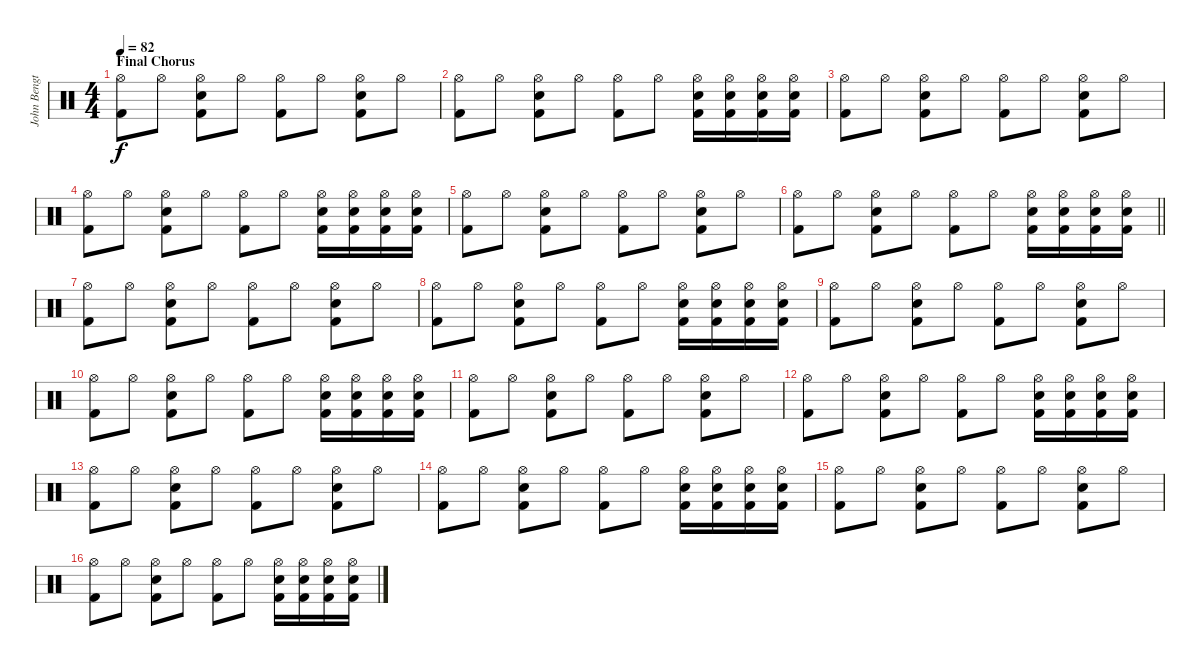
\track ("John Bengtsson" "John Bengt") {instrument percussion}
\staff {score}
\articulation defaults
\ts (4 4)
\section ("" "Final Chorus")
\tempo 82
\clef neutral
\ks c
("Hi-Hat (open)" "Kick (hit) 2").8{dy f} "Hi-Hat (open)".8 ("Hi-Hat (open)" "Electric Snare (hit)" "Kick (hit) 2").8 "Hi-Hat (open)".8 ("Hi-Hat (open)" "Kick (hit) 2").8 "Hi-Hat (open)".8 ("Hi-Hat (open)" "Electric Snare (hit)" "Kick (hit) 2").8 "Hi-Hat (open)".8 |
("Hi-Hat (open)" "Kick (hit) 2").8 "Hi-Hat (open)".8 ("Hi-Hat (open)" "Electric Snare (hit)" "Kick (hit) 2").8 "Hi-Hat (open)".8 ("Hi-Hat (open)" "Kick (hit) 2").8 "Hi-Hat (open)".8 ("Hi-Hat (open)" "Electric Snare (hit)" "Kick (hit) 2").16 ("Hi-Hat (open)" "Electric Snare (hit)" "Kick (hit) 2").16 ("Hi-Hat (open)" "Electric Snare (hit)" "Kick (hit) 2").16 ("Hi-Hat (open)" "Electric Snare (hit)" "Kick (hit) 2").16 |
("Hi-Hat (open)" "Kick (hit) 2").8 "Hi-Hat (open)".8 ("Hi-Hat (open)" "Electric Snare (hit)" "Kick (hit) 2").8 "Hi-Hat (open)".8 ("Hi-Hat (open)" "Kick (hit) 2").8 "Hi-Hat (open)".8 ("Hi-Hat (open)" "Electric Snare (hit)" "Kick (hit) 2").8 "Hi-Hat (open)".8 |
("Hi-Hat (open)" "Kick (hit) 2").8 "Hi-Hat (open)".8 ("Hi-Hat (open)" "Electric Snare (hit)" "Kick (hit) 2").8 "Hi-Hat (open)".8 ("Hi-Hat (open)" "Kick (hit) 2").8 "Hi-Hat (open)".8 ("Hi-Hat (open)" "Electric Snare (hit)" "Kick (hit) 2").16 ("Hi-Hat (open)" "Electric Snare (hit)" "Kick (hit) 2").16 ("Hi-Hat (open)" "Electric Snare (hit)" "Kick (hit) 2").16 ("Hi-Hat (open)" "Electric Snare (hit)" "Kick (hit) 2").16 |
("Hi-Hat (open)" "Kick (hit) 2").8 "Hi-Hat (open)".8 ("Hi-Hat (open)" "Electric Snare (hit)" "Kick (hit) 2").8 "Hi-Hat (open)".8 ("Hi-Hat (open)" "Kick (hit) 2").8 "Hi-Hat (open)".8 ("Hi-Hat (open)" "Electric Snare (hit)" "Kick (hit) 2").8 "Hi-Hat (open)".8 |
\barLineRight lightlight
("Hi-Hat (open)" "Kick (hit) 2").8 "Hi-Hat (open)".8 ("Hi-Hat (open)" "Electric Snare (hit)" "Kick (hit) 2").8 "Hi-Hat (open)".8 ("Hi-Hat (open)" "Kick (hit) 2").8 "Hi-Hat (open)".8 ("Hi-Hat (open)" "Electric Snare (hit)" "Kick (hit) 2").16 ("Hi-Hat (open)" "Electric Snare (hit)" "Kick (hit) 2").16 ("Hi-Hat (open)" "Electric Snare (hit)" "Kick (hit) 2").16 ("Hi-Hat (open)" "Electric Snare (hit)" "Kick (hit) 2").16 |
("Hi-Hat (open)" "Kick (hit) 2").8 "Hi-Hat (open)".8 ("Hi-Hat (open)" "Electric Snare (hit)" "Kick (hit) 2").8 "Hi-Hat (open)".8 ("Hi-Hat (open)" "Kick (hit) 2").8 "Hi-Hat (open)".8 ("Hi-Hat (open)" "Electric Snare (hit)" "Kick (hit) 2").8 "Hi-Hat (open)".8 |
("Hi-Hat (open)" "Kick (hit) 2").8 "Hi-Hat (open)".8 ("Hi-Hat (open)" "Electric Snare (hit)" "Kick (hit) 2").8 "Hi-Hat (open)".8 ("Hi-Hat (open)" "Kick (hit) 2").8 "Hi-Hat (open)".8 ("Hi-Hat (open)" "Electric Snare (hit)" "Kick (hit) 2").16 ("Hi-Hat (open)" "Electric Snare (hit)" "Kick (hit) 2").16 ("Hi-Hat (open)" "Electric Snare (hit)" "Kick (hit) 2").16 ("Hi-Hat (open)" "Electric Snare (hit)" "Kick (hit) 2").16 |
("Hi-Hat (open)" "Kick (hit) 2").8 "Hi-Hat (open)".8 ("Hi-Hat (open)" "Electric Snare (hit)" "Kick (hit) 2").8 "Hi-Hat (open)".8 ("Hi-Hat (open)" "Kick (hit) 2").8 "Hi-Hat (open)".8 ("Hi-Hat (open)" "Electric Snare (hit)" "Kick (hit) 2").8 "Hi-Hat (open)".8 |
("Hi-Hat (open)" "Kick (hit) 2").8 "Hi-Hat (open)".8 ("Hi-Hat (open)" "Electric Snare (hit)" "Kick (hit) 2").8 "Hi-Hat (open)".8 ("Hi-Hat (open)" "Kick (hit) 2").8 "Hi-Hat (open)".8 ("Hi-Hat (open)" "Electric Snare (hit)" "Kick (hit) 2").16 ("Hi-Hat (open)" "Electric Snare (hit)" "Kick (hit) 2").16 ("Hi-Hat (open)" "Electric Snare (hit)" "Kick (hit) 2").16 ("Hi-Hat (open)" "Electric Snare (hit)" "Kick (hit) 2").16 |
("Hi-Hat (open)" "Kick (hit) 2").8 "Hi-Hat (open)".8 ("Hi-Hat (open)" "Electric Snare (hit)" "Kick (hit) 2").8 "Hi-Hat (open)".8 ("Hi-Hat (open)" "Kick (hit) 2").8 "Hi-Hat (open)".8 ("Hi-Hat (open)" "Electric Snare (hit)" "Kick (hit) 2").8 "Hi-Hat (open)".8 |
("Hi-Hat (open)" "Kick (hit) 2").8 "Hi-Hat (open)".8 ("Hi-Hat (open)" "Electric Snare (hit)" "Kick (hit) 2").8 "Hi-Hat (open)".8 ("Hi-Hat (open)" "Kick (hit) 2").8 "Hi-Hat (open)".8 ("Hi-Hat (open)" "Electric Snare (hit)" "Kick (hit) 2").16 ("Hi-Hat (open)" "Electric Snare (hit)" "Kick (hit) 2").16 ("Hi-Hat (open)" "Electric Snare (hit)" "Kick (hit) 2").16 ("Hi-Hat (open)" "Electric Snare (hit)" "Kick (hit) 2").16 |
("Hi-Hat (open)" "Kick (hit) 2").8 "Hi-Hat (open)".8 ("Hi-Hat (open)" "Electric Snare (hit)" "Kick (hit) 2").8 "Hi-Hat (open)".8 ("Hi-Hat (open)" "Kick (hit) 2").8 "Hi-Hat (open)".8 ("Hi-Hat (open)" "Electric Snare (hit)" "Kick (hit) 2").8 "Hi-Hat (open)".8 |
("Hi-Hat (open)" "Kick (hit) 2").8 "Hi-Hat (open)".8 ("Hi-Hat (open)" "Electric Snare (hit)" "Kick (hit) 2").8 "Hi-Hat (open)".8 ("Hi-Hat (open)" "Kick (hit) 2").8 "Hi-Hat (open)".8 ("Hi-Hat (open)" "Electric Snare (hit)" "Kick (hit) 2").16 ("Hi-Hat (open)" "Electric Snare (hit)" "Kick (hit) 2").16 ("Hi-Hat (open)" "Electric Snare (hit)" "Kick (hit) 2").16 ("Hi-Hat (open)" "Electric Snare (hit)" "Kick (hit) 2").16 |
("Hi-Hat (open)" "Kick (hit) 2").8 "Hi-Hat (open)".8 ("Hi-Hat (open)" "Electric Snare (hit)" "Kick (hit) 2").8 "Hi-Hat (open)".8 ("Hi-Hat (open)" "Kick (hit) 2").8 "Hi-Hat (open)".8 ("Hi-Hat (open)" "Electric Snare (hit)" "Kick (hit) 2").8 "Hi-Hat (open)".8 |
("Hi-Hat (open)" "Kick (hit) 2").8 "Hi-Hat (open)".8 ("Hi-Hat (open)" "Electric Snare (hit)" "Kick (hit) 2").8 "Hi-Hat (open)".8 ("Hi-Hat (open)" "Kick (hit) 2").8 "Hi-Hat (open)".8 ("Hi-Hat (open)" "Electric Snare (hit)" "Kick (hit) 2").16 ("Hi-Hat (open)" "Electric Snare (hit)" "Kick (hit) 2").16 ("Hi-Hat (open)" "Electric Snare (hit)" "Kick (hit) 2").16 ("Hi-Hat (open)" "Electric Snare (hit)" "Kick (hit) 2").16
